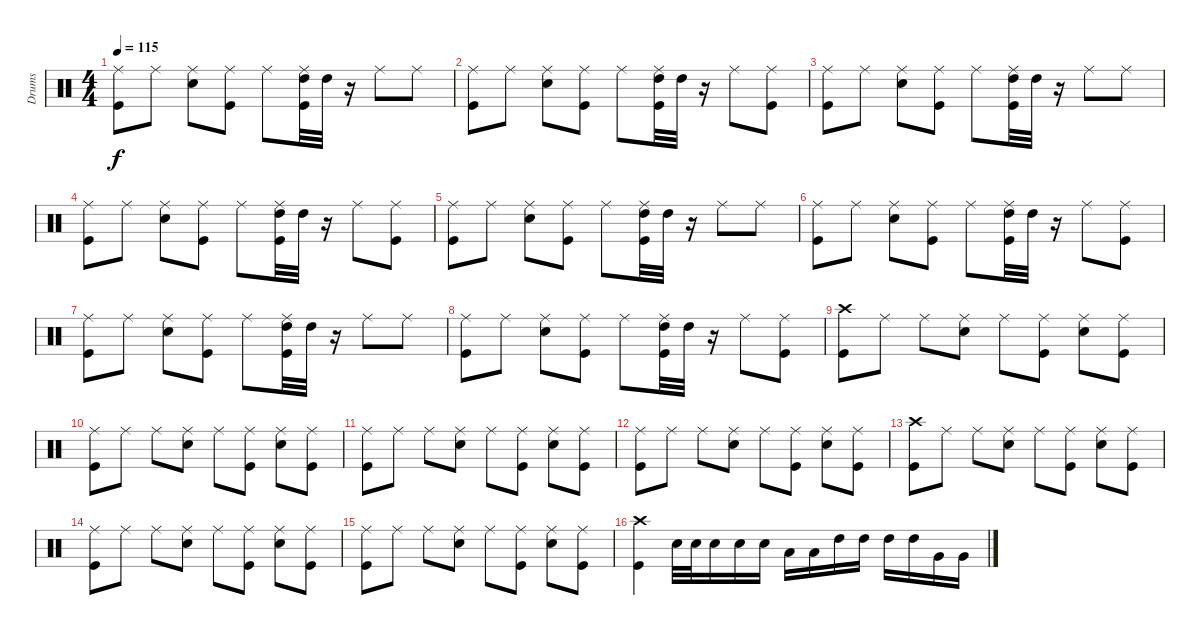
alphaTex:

\track ("Drums" "Drums") {instrument percussion}
\staff {score}
\articulation defaults
\ts (4 4)
\tempo 115
\clef neutral
\ks c
("Kick (hit)" "Ride (middle)").8{dy f} "Ride (middle)".8 ("Snare (hit) 2" "Ride (middle)").8 ("Kick (hit)" "Ride (middle)").8 "Ride (middle)".8 ("Kick (hit)" "High Tom (hit)" "Ride (middle)").32 "High Tom (hit)".32 r.16 "Ride (middle)".8 "Ride (middle)".8 |
("Kick (hit)" "Ride (middle)").8 "Ride (middle)".8 ("Snare (hit) 2" "Ride (middle)").8 ("Kick (hit)" "Ride (middle)").8 "Ride (middle)".8 ("Kick (hit)" "High Tom (hit)" "Ride (middle)").32 "High Tom (hit)".32 r.16 "Ride (middle)".8 ("Kick (hit)" "Ride (middle)").8 |
("Kick (hit)" "Ride (middle)").8 "Ride (middle)".8 ("Snare (hit) 2" "Ride (middle)").8 ("Kick (hit)" "Ride (middle)").8 "Ride (middle)".8 ("Kick (hit)" "High Tom (hit)" "Ride (middle)").32 "High Tom (hit)".32 r.16 "Ride (middle)".8 "Ride (middle)".8 |
("Kick (hit)" "Ride (middle)").8 "Ride (middle)".8 ("Snare (hit) 2" "Ride (middle)").8 ("Kick (hit)" "Ride (middle)").8 "Ride (middle)".8 ("Kick (hit)" "High Tom (hit)" "Ride (middle)").32 "High Tom (hit)".32 r.16 "Ride (middle)".8 ("Kick (hit)" "Ride (middle)").8 |
("Kick (hit)" "Ride (middle)").8 "Ride (middle)".8 ("Snare (hit) 2" "Ride (middle)").8 ("Kick (hit)" "Ride (middle)").8 "Ride (middle)".8 ("Kick (hit)" "High Tom (hit)" "Ride (middle)").32 "High Tom (hit)".32 r.16 "Ride (middle)".8 "Ride (middle)".8 |
("Kick (hit)" "Ride (middle)").8 "Ride (middle)".8 ("Snare (hit) 2" "Ride (middle)").8 ("Kick (hit)" "Ride (middle)").8 "Ride (middle)".8 ("Kick (hit)" "High Tom (hit)" "Ride (middle)").32 "High Tom (hit)".32 r.16 "Ride (middle)".8 ("Kick (hit)" "Ride (middle)").8 |
("Kick (hit)" "Ride (middle)").8 "Ride (middle)".8 ("Snare (hit) 2" "Ride (middle)").8 ("Kick (hit)" "Ride (middle)").8 "Ride (middle)".8 ("Kick (hit)" "High Tom (hit)" "Ride (middle)").32 "High Tom (hit)".32 r.16 "Ride (middle)".8 "Ride (middle)".8 |
("Kick (hit)" "Ride (middle)").8 "Ride (middle)".8 ("Snare (hit) 2" "Ride (middle)").8 ("Kick (hit)" "Ride (middle)").8 "Ride (middle)".8 ("Kick (hit)" "High Tom (hit)" "Ride (middle)").32 "High Tom (hit)".32 r.16 "Ride (middle)".8 ("Kick (hit)" "Ride (middle)").8 |
("Kick (hit)" "Crash high (hit)").8 "Ride (middle)".8 "Ride (middle)".8 ("Snare (hit) 2" "Ride (middle)").8 "Ride (middle)".8 ("Kick (hit)" "Ride (middle)").8 ("Snare (hit) 2" "Ride (middle)").8 ("Kick (hit)" "Ride (middle)").8 |
("Kick (hit)" "Ride (middle)").8 "Ride (middle)".8 "Ride (middle)".8 ("Snare (hit) 2" "Ride (middle)").8 "Ride (middle)".8 ("Kick (hit)" "Ride (middle)").8 ("Snare (hit) 2" "Ride (middle)").8 ("Kick (hit)" "Ride (middle)").8 |
("Kick (hit)" "Ride (middle)").8 "Ride (middle)".8 "Ride (middle)".8 ("Snare (hit) 2" "Ride (middle)").8 "Ride (middle)".8 ("Kick (hit)" "Ride (middle)").8 ("Snare (hit) 2" "Ride (middle)").8 ("Kick (hit)" "Ride (middle)").8 |
("Kick (hit)" "Ride (middle)").8 "Ride (middle)".8 "Ride (middle)".8 ("Snare (hit) 2" "Ride (middle)").8 "Ride (middle)".8 ("Kick (hit)" "Ride (middle)").8 ("Snare (hit) 2" "Ride (middle)").8 ("Kick (hit)" "Ride (middle)").8 |
("Kick (hit)" "Crash high (hit)").8 "Ride (middle)".8 "Ride (middle)".8 ("Snare (hit) 2" "Ride (middle)").8 "Ride (middle)".8 ("Kick (hit)" "Ride (middle)").8 ("Snare (hit) 2" "Ride (middle)").8 ("Kick (hit)" "Ride (middle)").8 |
("Kick (hit)" "Ride (middle)").8 "Ride (middle)".8 "Ride (middle)".8 ("Snare (hit) 2" "Ride (middle)").8 "Ride (middle)".8 ("Kick (hit)" "Ride (middle)").8 ("Snare (hit) 2" "Ride (middle)").8 ("Kick (hit)" "Ride (middle)").8 |
("Kick (hit)" "Ride (middle)").8 "Ride (middle)".8 "Ride (middle)".8 ("Snare (hit) 2" "Ride (middle)").8 "Ride (middle)".8 ("Kick (hit)" "Ride (middle)").8 ("Snare (hit) 2" "Ride (middle)").8 ("Kick (hit)" "Ride (middle)").8 |
("Kick (hit)" "Crash high (hit)").4 "Snare (hit) 2".32 "Snare (hit) 2".32 "Snare (hit) 2".16 "Snare (hit) 2".16 "Snare (hit) 2".16 "Low Tom (hit)".16 "Low Tom (hit)".16 "High Tom (hit)".16 "High Tom (hit)".16 "High Tom (hit)".16 "High Tom (hit)".16 "Very Low Tom (hit)".16 "Very Low Tom (hit)".16
